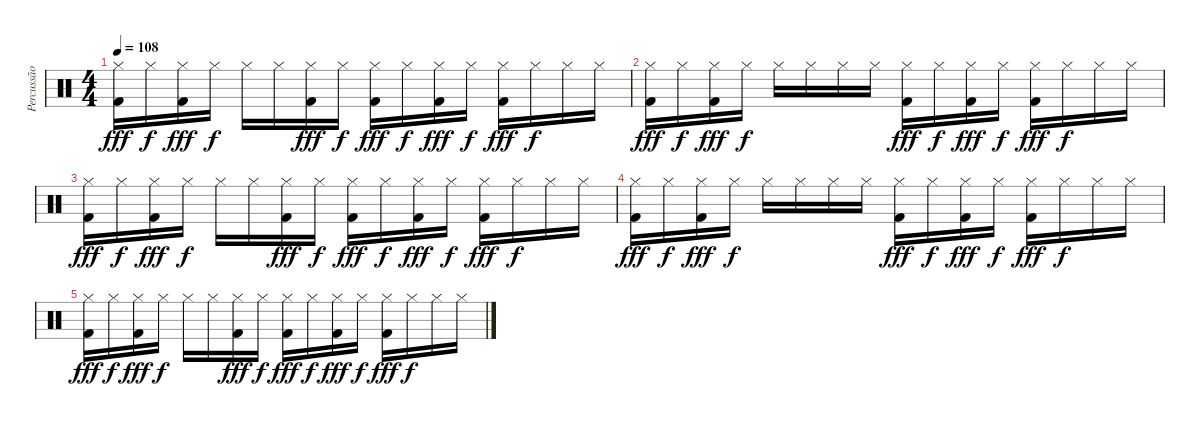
\track ("Percussão" "Percussão") {instrument percussion}
\staff {score}
\articulation defaults
\ts (4 4)
\tempo 108
\clef neutral
\ks c
("Hi-Hat (closed)" "Kick (hit) 2").16{dy fff} "Hi-Hat (closed)".16{dy f} ("Hi-Hat (closed)" "Kick (hit) 2").16{dy fff} "Hi-Hat (closed)".16{dy f} "Hi-Hat (closed)".16 "Hi-Hat (closed)".16 ("Hi-Hat (closed)" "Kick (hit) 2").16{dy fff} "Hi-Hat (closed)".16{dy f} ("Hi-Hat (closed)" "Kick (hit) 2").16{dy fff} "Hi-Hat (closed)".16{dy f} ("Hi-Hat (closed)" "Kick (hit) 2").16{dy fff} "Hi-Hat (closed)".16{dy f} ("Hi-Hat (closed)" "Kick (hit) 2").16{dy fff} "Hi-Hat (closed)".16{dy f} "Hi-Hat (closed)".16 "Hi-Hat (closed)".16 |
("Hi-Hat (closed)" "Kick (hit) 2").16{dy fff} "Hi-Hat (closed)".16{dy f} ("Hi-Hat (closed)" "Kick (hit) 2").16{dy fff} "Hi-Hat (closed)".16{dy f} "Hi-Hat (closed)".16 "Hi-Hat (closed)".16 "Hi-Hat (closed)".16 "Hi-Hat (closed)".16 ("Hi-Hat (closed)" "Kick (hit) 2").16{dy fff} "Hi-Hat (closed)".16{dy f} ("Hi-Hat (closed)" "Kick (hit) 2").16{dy fff} "Hi-Hat (closed)".16{dy f} ("Hi-Hat (closed)" "Kick (hit) 2").16{dy fff} "Hi-Hat (closed)".16{dy f} "Hi-Hat (closed)".16 "Hi-Hat (closed)".16 |
("Hi-Hat (closed)" "Kick (hit) 2").16{dy fff} "Hi-Hat (closed)".16{dy f} ("Hi-Hat (closed)" "Kick (hit) 2").16{dy fff} "Hi-Hat (closed)".16{dy f} "Hi-Hat (closed)".16 "Hi-Hat (closed)".16 ("Hi-Hat (closed)" "Kick (hit) 2").16{dy fff} "Hi-Hat (closed)".16{dy f} ("Hi-Hat (closed)" "Kick (hit) 2").16{dy fff} "Hi-Hat (closed)".16{dy f} ("Hi-Hat (closed)" "Kick (hit) 2").16{dy fff} "Hi-Hat (closed)".16{dy f} ("Hi-Hat (closed)" "Kick (hit) 2").16{dy fff} "Hi-Hat (closed)".16{dy f} "Hi-Hat (closed)".16 "Hi-Hat (closed)".16 |
("Hi-Hat (closed)" "Kick (hit) 2").16{dy fff} "Hi-Hat (closed)".16{dy f} ("Hi-Hat (closed)" "Kick (hit) 2").16{dy fff} "Hi-Hat (closed)".16{dy f} "Hi-Hat (closed)".16 "Hi-Hat (closed)".16 "Hi-Hat (closed)".16 "Hi-Hat (closed)".16 ("Hi-Hat (closed)" "Kick (hit) 2").16{dy fff} "Hi-Hat (closed)".16{dy f} ("Hi-Hat (closed)" "Kick (hit) 2").16{dy fff} "Hi-Hat (closed)".16{dy f} ("Hi-Hat (closed)" "Kick (hit) 2").16{dy fff} "Hi-Hat (closed)".16{dy f} "Hi-Hat (closed)".16 "Hi-Hat (closed)".16 |
("Hi-Hat (closed)" "Kick (hit) 2").16{dy fff} "Hi-Hat (closed)".16{dy f} ("Hi-Hat (closed)" "Kick (hit) 2").16{dy fff} "Hi-Hat (closed)".16{dy f} "Hi-Hat (closed)".16 "Hi-Hat (closed)".16 ("Hi-Hat (closed)" "Kick (hit) 2").16{dy fff} "Hi-Hat (closed)".16{dy f} ("Hi-Hat (closed)" "Kick (hit) 2").16{dy fff} "Hi-Hat (closed)".16{dy f} ("Hi-Hat (closed)" "Kick (hit) 2").16{dy fff} "Hi-Hat (closed)".16{dy f} ("Hi-Hat (closed)" "Kick (hit) 2").16{dy fff} "Hi-Hat (closed)".16{dy f} "Hi-Hat (closed)".16 "Hi-Hat (closed)".16
